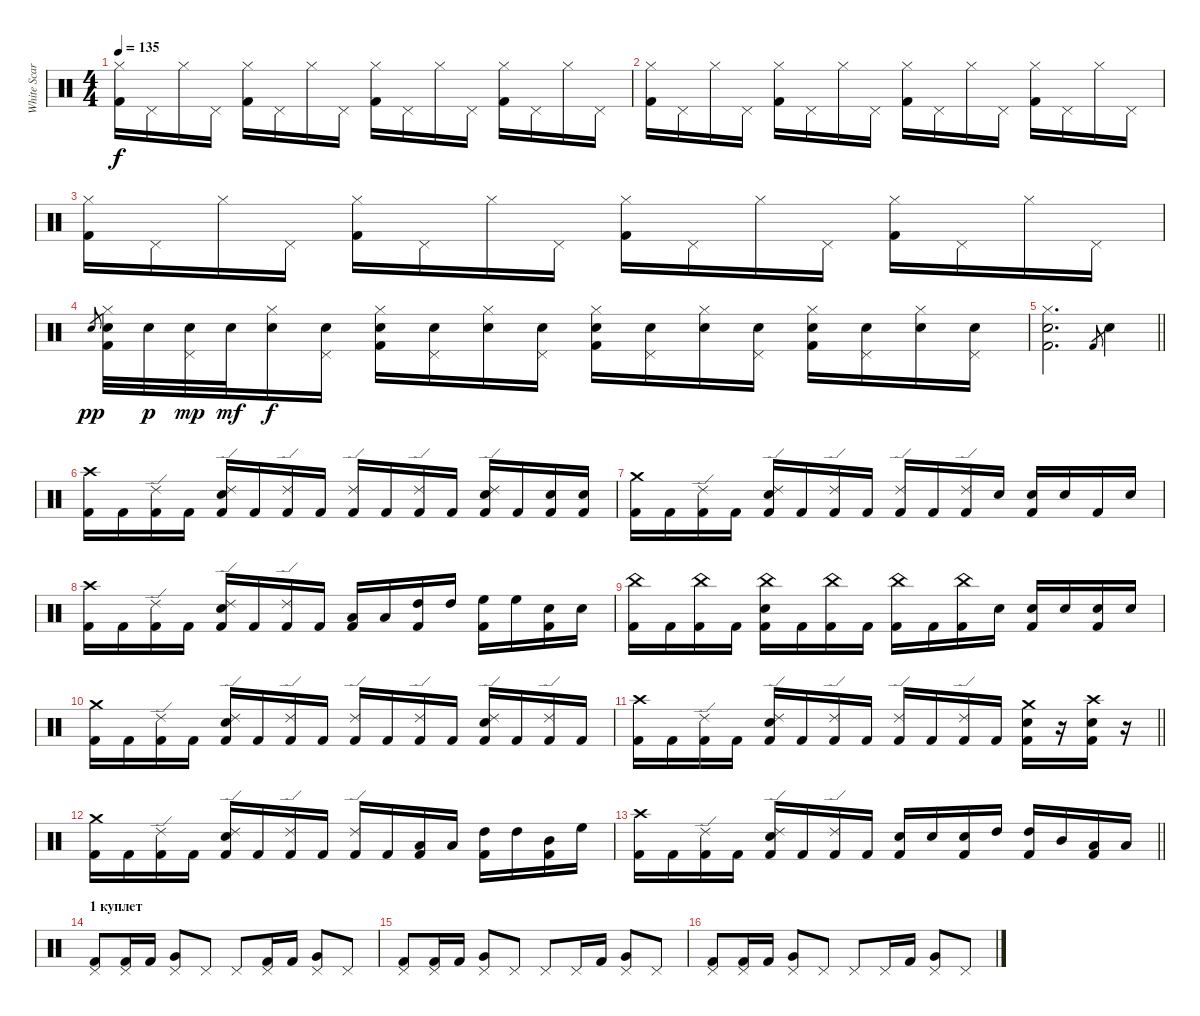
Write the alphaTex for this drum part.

\track ("White Scar" "White Scar") {instrument percussion}
\staff {score}
\articulation defaults
\ts (4 4)
\tempo 135
\clef neutral
\ks c
("Hi-Hat (closed)" "Kick (hit) 2").16{dy f} "Pedal Hi-Hat (hit)".16 "Hi-Hat (closed)".16 "Pedal Hi-Hat (hit)".16 ("Hi-Hat (closed)" "Kick (hit) 2").16 "Pedal Hi-Hat (hit)".16 "Hi-Hat (closed)".16 "Pedal Hi-Hat (hit)".16 ("Hi-Hat (closed)" "Kick (hit) 2").16 "Pedal Hi-Hat (hit)".16 "Hi-Hat (closed)".16 "Pedal Hi-Hat (hit)".16 ("Hi-Hat (closed)" "Kick (hit) 2").16 "Pedal Hi-Hat (hit)".16 "Hi-Hat (closed)".16 "Pedal Hi-Hat (hit)".16 |
("Hi-Hat (closed)" "Kick (hit) 2").16 "Pedal Hi-Hat (hit)".16 "Hi-Hat (closed)".16 "Pedal Hi-Hat (hit)".16 ("Hi-Hat (closed)" "Kick (hit) 2").16 "Pedal Hi-Hat (hit)".16 "Hi-Hat (closed)".16 "Pedal Hi-Hat (hit)".16 ("Hi-Hat (closed)" "Kick (hit) 2").16 "Pedal Hi-Hat (hit)".16 "Hi-Hat (closed)".16 "Pedal Hi-Hat (hit)".16 ("Hi-Hat (closed)" "Kick (hit) 2").16 "Pedal Hi-Hat (hit)".16 "Hi-Hat (closed)".16 "Pedal Hi-Hat (hit)".16 |
("Hi-Hat (closed)" "Kick (hit) 2").16 "Pedal Hi-Hat (hit)".16 "Hi-Hat (closed)".16 "Pedal Hi-Hat (hit)".16 ("Hi-Hat (closed)" "Kick (hit) 2").16 "Pedal Hi-Hat (hit)".16 "Hi-Hat (closed)".16 "Pedal Hi-Hat (hit)".16 ("Hi-Hat (closed)" "Kick (hit) 2").16 "Pedal Hi-Hat (hit)".16 "Hi-Hat (closed)".16 "Pedal Hi-Hat (hit)".16 ("Hi-Hat (closed)" "Kick (hit) 2").16 "Pedal Hi-Hat (hit)".16 "Hi-Hat (closed)".16 "Pedal Hi-Hat (hit)".16 |
"Snare (hit) 2".8{gr dy pp} ("Hi-Hat (closed)" "Snare (hit) 2" "Kick (hit) 2").32 "Snare (hit) 2".32{dy p} ("Pedal Hi-Hat (hit)" "Snare (hit) 2").32{dy mp} "Snare (hit) 2".32{dy mf} ("Hi-Hat (closed)" "Snare (hit) 2").16{dy f} ("Pedal Hi-Hat (hit)" "Snare (hit) 2").16 ("Hi-Hat (closed)" "Snare (hit) 2" "Kick (hit) 2").16 ("Pedal Hi-Hat (hit)" "Snare (hit) 2").16 ("Hi-Hat (closed)" "Snare (hit) 2").16 ("Pedal Hi-Hat (hit)" "Snare (hit) 2").16 ("Hi-Hat (closed)" "Snare (hit) 2" "Kick (hit) 2").16 ("Pedal Hi-Hat (hit)" "Snare (hit) 2").16 ("Hi-Hat (closed)" "Snare (hit) 2").16 ("Pedal Hi-Hat (hit)" "Snare (hit) 2").16 ("Hi-Hat (closed)" "Snare (hit) 2" "Kick (hit) 2").16 ("Pedal Hi-Hat (hit)" "Snare (hit) 2").16 ("Hi-Hat (closed)" "Snare (hit) 2").16 ("Pedal Hi-Hat (hit)" "Snare (hit) 2").16 |
\barLineRight lightlight
("Hi-Hat (closed)" "Snare (hit) 2" "Kick (hit) 2").2{d} "Kick (hit) 2".8{gr} "Snare (hit) 2".4 |
("Kick (hit) 2" "Crash high (hit)").16 "Kick (hit) 2".16 ("Kick (hit) 2" "Ride (edge) 2").16 "Kick (hit) 2".16 ("Kick (hit) 2" "Snare (hit) 2" "Ride (edge) 2").16 "Kick (hit) 2".16 ("Kick (hit) 2" "Ride (edge) 2").16 "Kick (hit) 2".16 ("Kick (hit) 2" "Ride (edge) 2").16 "Kick (hit) 2".16 ("Kick (hit) 2" "Ride (edge) 2").16 "Kick (hit) 2".16 ("Kick (hit) 2" "Snare (hit) 2" "Ride (edge) 2").16 "Kick (hit) 2".16 ("Kick (hit) 2" "Snare (hit) 2").16 ("Kick (hit) 2" "Snare (hit) 2").16 |
("Kick (hit) 2" "Crash medium (hit)").16 "Kick (hit) 2".16 ("Kick (hit) 2" "Ride (edge) 2").16 "Kick (hit) 2".16 ("Kick (hit) 2" "Snare (hit) 2" "Ride (edge) 2").16 "Kick (hit) 2".16 ("Kick (hit) 2" "Ride (edge) 2").16 "Kick (hit) 2".16 ("Kick (hit) 2" "Ride (edge) 2").16 "Kick (hit) 2".16 ("Kick (hit) 2" "Ride (edge) 2").16 "Snare (hit) 2".16 ("Kick (hit) 2" "Snare (hit) 2").16 "Snare (hit) 2".16 "Kick (hit) 2".16 "Snare (hit) 2".16 |
("Kick (hit) 2" "Crash high (hit)").16 "Kick (hit) 2".16 ("Kick (hit) 2" "Ride (edge) 2").16 "Kick (hit) 2".16 ("Kick (hit) 2" "Snare (hit) 2" "Ride (edge) 2").16 "Kick (hit) 2".16 ("Kick (hit) 2" "Ride (edge) 2").16 "Kick (hit) 2".16 ("Kick (hit) 2" "Low Tom (hit)").16 "Low Tom (hit)".16 ("Kick (hit) 2" "High Tom (hit)").16 "High Tom (hit)".16 ("Kick (hit) 2" "High Floor Tom (hit)").16 "High Floor Tom (hit)".16 ("Kick (hit) 2" "Snare (hit) 2").16 "Snare (hit) 2".16 |
("Kick (hit) 2" "China (hit)").16 "Kick (hit) 2".16 ("Kick (hit) 2" "China (hit)").16 "Kick (hit) 2".16 ("Kick (hit) 2" "Snare (hit) 2" "China (hit)").16 "Kick (hit) 2".16 ("Kick (hit) 2" "China (hit)").16 "Kick (hit) 2".16 ("Kick (hit) 2" "China (hit)").16 "Kick (hit) 2".16 ("Kick (hit) 2" "China (hit)").16 "Snare (hit) 2".16 ("Kick (hit) 2" "Snare (hit) 2").16 "Snare (hit) 2".16 ("Kick (hit) 2" "Snare (hit) 2").16 "Snare (hit) 2".16 |
("Kick (hit) 2" "Crash medium (hit)").16 "Kick (hit) 2".16 ("Kick (hit) 2" "Ride (edge) 2").16 "Kick (hit) 2".16 ("Kick (hit) 2" "Snare (hit) 2" "Ride (edge) 2").16 "Kick (hit) 2".16 ("Kick (hit) 2" "Ride (edge) 2").16 "Kick (hit) 2".16 ("Kick (hit) 2" "Ride (edge) 2").16 "Kick (hit) 2".16 ("Kick (hit) 2" "Ride (edge) 2").16 "Kick (hit) 2".16 ("Kick (hit) 2" "Snare (hit) 2" "Ride (edge) 2").16 "Kick (hit) 2".16 ("Kick (hit) 2" "Ride (edge) 2").16 "Kick (hit) 2".16 |
\barLineRight lightlight
("Kick (hit) 2" "Crash high (hit)").16 "Kick (hit) 2".16 ("Kick (hit) 2" "Ride (edge) 2").16 "Kick (hit) 2".16 ("Kick (hit) 2" "Snare (hit) 2" "Ride (edge) 2").16 "Kick (hit) 2".16 ("Kick (hit) 2" "Ride (edge) 2").16 "Kick (hit) 2".16 ("Kick (hit) 2" "Ride (edge) 2").16 "Kick (hit) 2".16 ("Kick (hit) 2" "Ride (edge) 2").16 "Kick (hit) 2".16 ("Kick (hit) 2" "Snare (hit) 2" "Crash medium (hit)").16 r.16 ("Kick (hit) 2" "Snare (hit) 2" "Crash high (hit)").16 r.16 |
("Kick (hit) 2" "Crash medium (hit)").16 "Kick (hit) 2".16 ("Kick (hit) 2" "Ride (edge) 2").16 "Kick (hit) 2".16 ("Kick (hit) 2" "Snare (hit) 2" "Ride (edge) 2").16 "Kick (hit) 2".16 ("Kick (hit) 2" "Ride (edge) 2").16 "Kick (hit) 2".16 ("Kick (hit) 2" "Ride (edge) 2").16 "Kick (hit) 2".16 ("Kick (hit) 2" "Low Tom (hit)").16 "Low Tom (hit)".16 ("Kick (hit) 2" "High Tom (hit)").16 "High Tom (hit)".16 ("Kick (hit) 2" "Mid Tom (hit)").16 "High Floor Tom (hit)".16 |
\barLineRight lightlight
("Kick (hit) 2" "Crash high (hit)").16 "Kick (hit) 2".16 ("Kick (hit) 2" "Ride (edge) 2").16 "Kick (hit) 2".16 ("Kick (hit) 2" "Snare (hit) 2" "Ride (edge) 2").16 "Kick (hit) 2".16 ("Kick (hit) 2" "Ride (edge) 2").16 "Kick (hit) 2".16 ("Kick (hit) 2" "Snare (hit) 2").16 "Snare (hit) 2".16 ("Kick (hit) 2" "Snare (hit) 2").16 "High Tom (hit)".16 ("Kick (hit) 2" "High Tom (hit)").16 "Mid Tom (hit)".16 ("Kick (hit) 2" "Low Tom (hit)").16 "Low Tom (hit)".16 |
\section ("" "1 куплет")
("Pedal Hi-Hat (hit)" "Kick (hit) 2").8 ("Pedal Hi-Hat (hit)" "Kick (hit) 2").16 "Kick (hit) 2".16 ("Pedal Hi-Hat (hit)" "Very Low Tom (hit)").8 "Pedal Hi-Hat (hit)".8 "Pedal Hi-Hat (hit)".8 ("Pedal Hi-Hat (hit)" "Kick (hit) 2").16 "Kick (hit) 2".16 ("Pedal Hi-Hat (hit)" "Very Low Tom (hit)").8 "Pedal Hi-Hat (hit)".8 |
("Pedal Hi-Hat (hit)" "Kick (hit) 2").8 ("Pedal Hi-Hat (hit)" "Kick (hit) 2").16 "Kick (hit) 2".16 ("Pedal Hi-Hat (hit)" "Very Low Tom (hit)").8 "Pedal Hi-Hat (hit)".8 "Pedal Hi-Hat (hit)".8 "Pedal Hi-Hat (hit)".16 "Kick (hit) 2".16 ("Pedal Hi-Hat (hit)" "Very Low Tom (hit)").8 "Pedal Hi-Hat (hit)".8 |
("Pedal Hi-Hat (hit)" "Kick (hit) 2").8 ("Pedal Hi-Hat (hit)" "Kick (hit) 2").16 "Kick (hit) 2".16 ("Pedal Hi-Hat (hit)" "Very Low Tom (hit)").8 "Pedal Hi-Hat (hit)".8 "Pedal Hi-Hat (hit)".8 "Pedal Hi-Hat (hit)".16 "Kick (hit) 2".16 ("Pedal Hi-Hat (hit)" "Very Low Tom (hit)").8 "Pedal Hi-Hat (hit)".8
